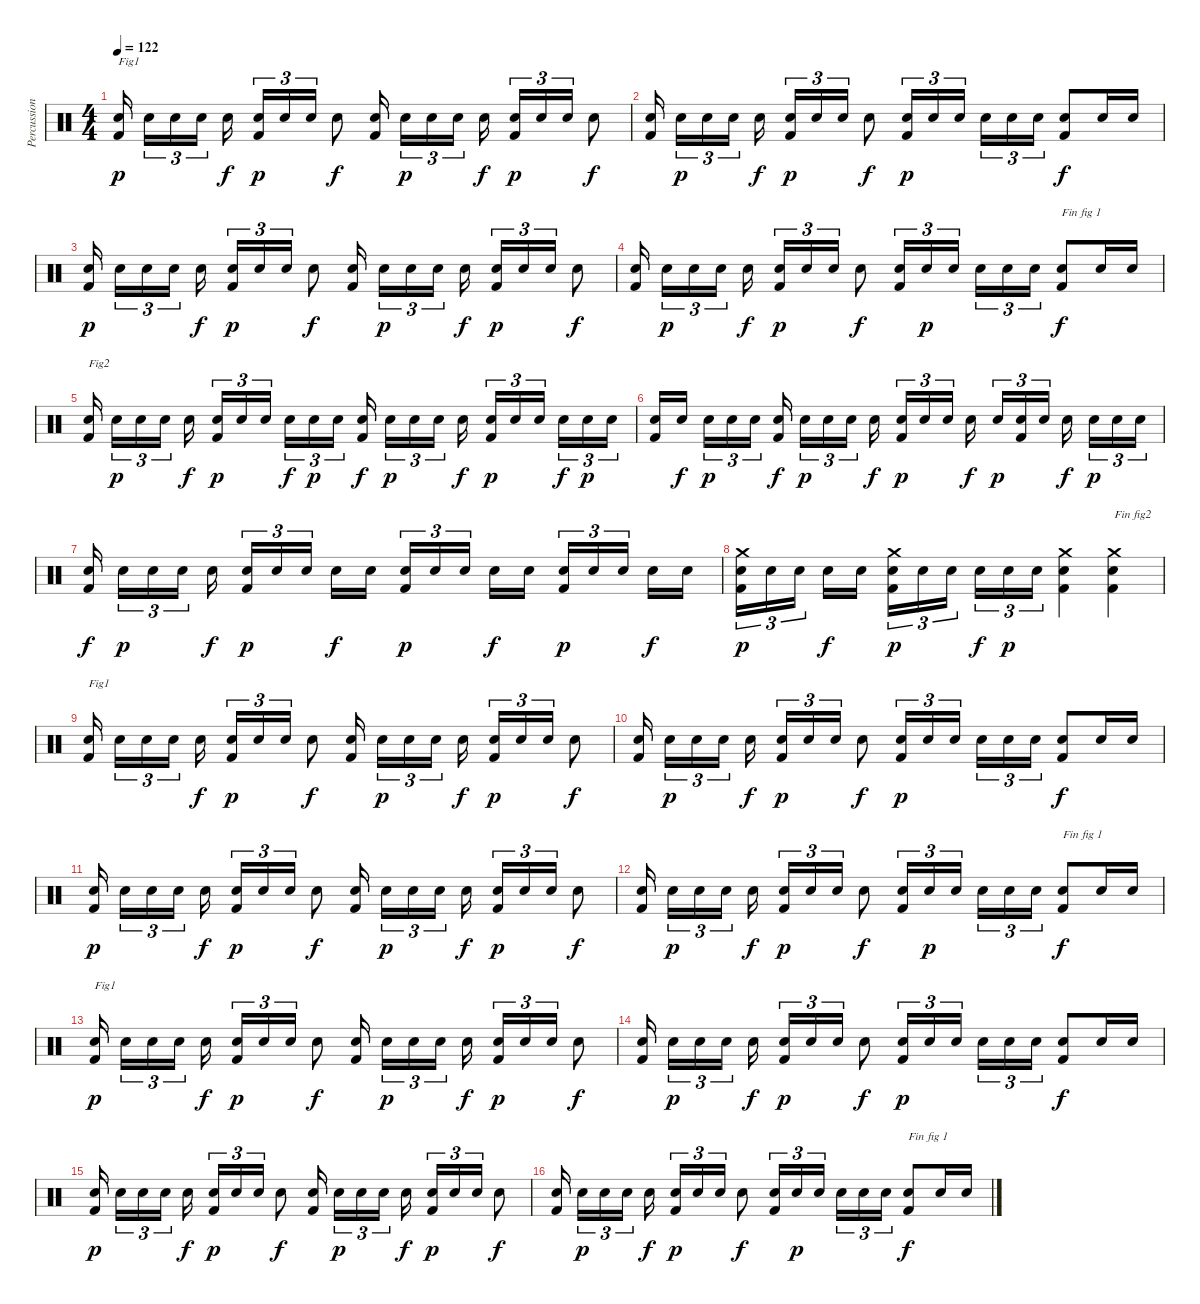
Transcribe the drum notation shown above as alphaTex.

\track ("Percussions" "Percussion") {instrument percussion}
\staff {score}
\articulation defaults
\ts (4 4)
\tempo 122
\clef neutral
\ks c
("Kick (hit) 2" "Snare (hit) 2").16{txt "Fig1" dy p} "Snare (hit) 2".16{tu (3 2)} "Snare (hit) 2".16{tu (3 2)} "Snare (hit) 2".16{tu (3 2)} "Snare (hit) 2".16{dy f} ("Kick (hit) 2" "Snare (hit) 2").16{tu (3 2) dy p} "Snare (hit) 2".16{tu (3 2)} "Snare (hit) 2".16{tu (3 2)} "Snare (hit) 2".8{dy f} ("Kick (hit) 2" "Snare (hit) 2").16 "Snare (hit) 2".16{tu (3 2) dy p} "Snare (hit) 2".16{tu (3 2)} "Snare (hit) 2".16{tu (3 2)} "Snare (hit) 2".16{dy f} ("Kick (hit) 2" "Snare (hit) 2").16{tu (3 2) dy p} "Snare (hit) 2".16{tu (3 2)} "Snare (hit) 2".16{tu (3 2)} "Snare (hit) 2".8{dy f} |
("Kick (hit) 2" "Snare (hit) 2").16 "Snare (hit) 2".16{tu (3 2) dy p} "Snare (hit) 2".16{tu (3 2)} "Snare (hit) 2".16{tu (3 2)} "Snare (hit) 2".16{dy f} ("Kick (hit) 2" "Snare (hit) 2").16{tu (3 2) dy p} "Snare (hit) 2".16{tu (3 2)} "Snare (hit) 2".16{tu (3 2)} "Snare (hit) 2".8{dy f} ("Kick (hit) 2" "Snare (hit) 2").16{tu (3 2) dy p} "Snare (hit) 2".16{tu (3 2)} "Snare (hit) 2".16{tu (3 2)} "Snare (hit) 2".16{tu (3 2)} "Snare (hit) 2".16{tu (3 2)} "Snare (hit) 2".16{tu (3 2)} ("Kick (hit) 2" "Snare (hit) 2").8{dy f} "Snare (hit) 2".16 "Snare (hit) 2".16 |
("Kick (hit) 2" "Snare (hit) 2").16{dy p} "Snare (hit) 2".16{tu (3 2)} "Snare (hit) 2".16{tu (3 2)} "Snare (hit) 2".16{tu (3 2)} "Snare (hit) 2".16{dy f} ("Kick (hit) 2" "Snare (hit) 2").16{tu (3 2) dy p} "Snare (hit) 2".16{tu (3 2)} "Snare (hit) 2".16{tu (3 2)} "Snare (hit) 2".8{dy f} ("Kick (hit) 2" "Snare (hit) 2").16 "Snare (hit) 2".16{tu (3 2) dy p} "Snare (hit) 2".16{tu (3 2)} "Snare (hit) 2".16{tu (3 2)} "Snare (hit) 2".16{dy f} ("Kick (hit) 2" "Snare (hit) 2").16{tu (3 2) dy p} "Snare (hit) 2".16{tu (3 2)} "Snare (hit) 2".16{tu (3 2)} "Snare (hit) 2".8{dy f} |
("Kick (hit) 2" "Snare (hit) 2").16 "Snare (hit) 2".16{tu (3 2) dy p} "Snare (hit) 2".16{tu (3 2)} "Snare (hit) 2".16{tu (3 2)} "Snare (hit) 2".16{dy f} ("Kick (hit) 2" "Snare (hit) 2").16{tu (3 2) dy p} "Snare (hit) 2".16{tu (3 2)} "Snare (hit) 2".16{tu (3 2)} "Snare (hit) 2".8{dy f} ("Kick (hit) 2" "Snare (hit) 2").16{tu (3 2)} "Snare (hit) 2".16{tu (3 2) dy p} "Snare (hit) 2".16{tu (3 2)} "Snare (hit) 2".16{tu (3 2)} "Snare (hit) 2".16{tu (3 2)} "Snare (hit) 2".16{tu (3 2)} ("Kick (hit) 2" "Snare (hit) 2").8{txt "Fin fig 1" dy f} "Snare (hit) 2".16 "Snare (hit) 2".16 |
("Kick (hit) 2" "Snare (hit) 2").16{txt "Fig2"} "Snare (hit) 2".16{tu (3 2) dy p} "Snare (hit) 2".16{tu (3 2)} "Snare (hit) 2".16{tu (3 2)} "Snare (hit) 2".16{dy f} ("Kick (hit) 2" "Snare (hit) 2").16{tu (3 2) dy p} "Snare (hit) 2".16{tu (3 2)} "Snare (hit) 2".16{tu (3 2)} "Snare (hit) 2".16{tu (3 2) dy f} "Snare (hit) 2".16{tu (3 2) dy p} "Snare (hit) 2".16{tu (3 2)} ("Kick (hit) 2" "Snare (hit) 2").16{dy f} "Snare (hit) 2".16{tu (3 2) dy p} "Snare (hit) 2".16{tu (3 2)} "Snare (hit) 2".16{tu (3 2)} "Snare (hit) 2".16{dy f} ("Kick (hit) 2" "Snare (hit) 2").16{tu (3 2) dy p} "Snare (hit) 2".16{tu (3 2)} "Snare (hit) 2".16{tu (3 2)} "Snare (hit) 2".16{tu (3 2) dy f} "Snare (hit) 2".16{tu (3 2) dy p} "Snare (hit) 2".16{tu (3 2)} |
("Kick (hit) 2" "Snare (hit) 2").16 "Snare (hit) 2".16{dy f} "Snare (hit) 2".16{tu (3 2) dy p} "Snare (hit) 2".16{tu (3 2)} "Snare (hit) 2".16{tu (3 2)} ("Kick (hit) 2" "Snare (hit) 2").16{dy f} "Snare (hit) 2".16{tu (3 2) dy p} "Snare (hit) 2".16{tu (3 2)} "Snare (hit) 2".16{tu (3 2)} "Snare (hit) 2".16{dy f} ("Kick (hit) 2" "Snare (hit) 2").16{tu (3 2) dy p} "Snare (hit) 2".16{tu (3 2)} "Snare (hit) 2".16{tu (3 2)} "Snare (hit) 2".16{dy f} "Snare (hit) 2".16{tu (3 2) dy p} ("Kick (hit) 2" "Snare (hit) 2").16{tu (3 2)} "Snare (hit) 2".16{tu (3 2)} "Snare (hit) 2".16{dy f} "Snare (hit) 2".16{tu (3 2) dy p} "Snare (hit) 2".16{tu (3 2)} "Snare (hit) 2".16{tu (3 2)} |
("Kick (hit) 2" "Snare (hit) 2").16{dy f} "Snare (hit) 2".16{tu (3 2) dy p} "Snare (hit) 2".16{tu (3 2)} "Snare (hit) 2".16{tu (3 2)} "Snare (hit) 2".16{dy f} ("Kick (hit) 2" "Snare (hit) 2").16{tu (3 2) dy p} "Snare (hit) 2".16{tu (3 2)} "Snare (hit) 2".16{tu (3 2)} "Snare (hit) 2".16{dy f} "Snare (hit) 2".16 ("Kick (hit) 2" "Snare (hit) 2").16{tu (3 2) dy p} "Snare (hit) 2".16{tu (3 2)} "Snare (hit) 2".16{tu (3 2)} "Snare (hit) 2".16{dy f} "Snare (hit) 2".16 ("Kick (hit) 2" "Snare (hit) 2").16{tu (3 2) dy p} "Snare (hit) 2".16{tu (3 2)} "Snare (hit) 2".16{tu (3 2)} "Snare (hit) 2".16{dy f} "Snare (hit) 2".16 |
("Kick (hit) 2" "Snare (hit) 2" "Crash medium (hit)").16{tu (3 2) dy p} "Snare (hit) 2".16{tu (3 2)} "Snare (hit) 2".16{tu (3 2)} "Snare (hit) 2".16{dy f} "Snare (hit) 2".16 ("Kick (hit) 2" "Snare (hit) 2" "Crash medium (hit)").16{tu (3 2) dy p} "Snare (hit) 2".16{tu (3 2)} "Snare (hit) 2".16{tu (3 2)} "Snare (hit) 2".16{tu (3 2) dy f} "Snare (hit) 2".16{tu (3 2) dy p} "Snare (hit) 2".16{tu (3 2)} ("Kick (hit) 2" "Snare (hit) 2" "Crash medium (hit)").4 ("Kick (hit) 2" "Snare (hit) 2" "Crash medium (hit)").4{txt "Fin fig2"} |
("Kick (hit) 2" "Snare (hit) 2").16{txt "Fig1"} "Snare (hit) 2".16{tu (3 2)} "Snare (hit) 2".16{tu (3 2)} "Snare (hit) 2".16{tu (3 2)} "Snare (hit) 2".16{dy f} ("Kick (hit) 2" "Snare (hit) 2").16{tu (3 2) dy p} "Snare (hit) 2".16{tu (3 2)} "Snare (hit) 2".16{tu (3 2)} "Snare (hit) 2".8{dy f} ("Kick (hit) 2" "Snare (hit) 2").16 "Snare (hit) 2".16{tu (3 2) dy p} "Snare (hit) 2".16{tu (3 2)} "Snare (hit) 2".16{tu (3 2)} "Snare (hit) 2".16{dy f} ("Kick (hit) 2" "Snare (hit) 2").16{tu (3 2) dy p} "Snare (hit) 2".16{tu (3 2)} "Snare (hit) 2".16{tu (3 2)} "Snare (hit) 2".8{dy f} |
("Kick (hit) 2" "Snare (hit) 2").16 "Snare (hit) 2".16{tu (3 2) dy p} "Snare (hit) 2".16{tu (3 2)} "Snare (hit) 2".16{tu (3 2)} "Snare (hit) 2".16{dy f} ("Kick (hit) 2" "Snare (hit) 2").16{tu (3 2) dy p} "Snare (hit) 2".16{tu (3 2)} "Snare (hit) 2".16{tu (3 2)} "Snare (hit) 2".8{dy f} ("Kick (hit) 2" "Snare (hit) 2").16{tu (3 2) dy p} "Snare (hit) 2".16{tu (3 2)} "Snare (hit) 2".16{tu (3 2)} "Snare (hit) 2".16{tu (3 2)} "Snare (hit) 2".16{tu (3 2)} "Snare (hit) 2".16{tu (3 2)} ("Kick (hit) 2" "Snare (hit) 2").8{dy f} "Snare (hit) 2".16 "Snare (hit) 2".16 |
("Kick (hit) 2" "Snare (hit) 2").16{dy p} "Snare (hit) 2".16{tu (3 2)} "Snare (hit) 2".16{tu (3 2)} "Snare (hit) 2".16{tu (3 2)} "Snare (hit) 2".16{dy f} ("Kick (hit) 2" "Snare (hit) 2").16{tu (3 2) dy p} "Snare (hit) 2".16{tu (3 2)} "Snare (hit) 2".16{tu (3 2)} "Snare (hit) 2".8{dy f} ("Kick (hit) 2" "Snare (hit) 2").16 "Snare (hit) 2".16{tu (3 2) dy p} "Snare (hit) 2".16{tu (3 2)} "Snare (hit) 2".16{tu (3 2)} "Snare (hit) 2".16{dy f} ("Kick (hit) 2" "Snare (hit) 2").16{tu (3 2) dy p} "Snare (hit) 2".16{tu (3 2)} "Snare (hit) 2".16{tu (3 2)} "Snare (hit) 2".8{dy f} |
("Kick (hit) 2" "Snare (hit) 2").16 "Snare (hit) 2".16{tu (3 2) dy p} "Snare (hit) 2".16{tu (3 2)} "Snare (hit) 2".16{tu (3 2)} "Snare (hit) 2".16{dy f} ("Kick (hit) 2" "Snare (hit) 2").16{tu (3 2) dy p} "Snare (hit) 2".16{tu (3 2)} "Snare (hit) 2".16{tu (3 2)} "Snare (hit) 2".8{dy f} ("Kick (hit) 2" "Snare (hit) 2").16{tu (3 2)} "Snare (hit) 2".16{tu (3 2) dy p} "Snare (hit) 2".16{tu (3 2)} "Snare (hit) 2".16{tu (3 2)} "Snare (hit) 2".16{tu (3 2)} "Snare (hit) 2".16{tu (3 2)} ("Kick (hit) 2" "Snare (hit) 2").8{txt "Fin fig 1" dy f} "Snare (hit) 2".16 "Snare (hit) 2".16 |
("Kick (hit) 2" "Snare (hit) 2").16{txt "Fig1" dy p} "Snare (hit) 2".16{tu (3 2)} "Snare (hit) 2".16{tu (3 2)} "Snare (hit) 2".16{tu (3 2)} "Snare (hit) 2".16{dy f} ("Kick (hit) 2" "Snare (hit) 2").16{tu (3 2) dy p} "Snare (hit) 2".16{tu (3 2)} "Snare (hit) 2".16{tu (3 2)} "Snare (hit) 2".8{dy f} ("Kick (hit) 2" "Snare (hit) 2").16 "Snare (hit) 2".16{tu (3 2) dy p} "Snare (hit) 2".16{tu (3 2)} "Snare (hit) 2".16{tu (3 2)} "Snare (hit) 2".16{dy f} ("Kick (hit) 2" "Snare (hit) 2").16{tu (3 2) dy p} "Snare (hit) 2".16{tu (3 2)} "Snare (hit) 2".16{tu (3 2)} "Snare (hit) 2".8{dy f} |
("Kick (hit) 2" "Snare (hit) 2").16 "Snare (hit) 2".16{tu (3 2) dy p} "Snare (hit) 2".16{tu (3 2)} "Snare (hit) 2".16{tu (3 2)} "Snare (hit) 2".16{dy f} ("Kick (hit) 2" "Snare (hit) 2").16{tu (3 2) dy p} "Snare (hit) 2".16{tu (3 2)} "Snare (hit) 2".16{tu (3 2)} "Snare (hit) 2".8{dy f} ("Kick (hit) 2" "Snare (hit) 2").16{tu (3 2) dy p} "Snare (hit) 2".16{tu (3 2)} "Snare (hit) 2".16{tu (3 2)} "Snare (hit) 2".16{tu (3 2)} "Snare (hit) 2".16{tu (3 2)} "Snare (hit) 2".16{tu (3 2)} ("Kick (hit) 2" "Snare (hit) 2").8{dy f} "Snare (hit) 2".16 "Snare (hit) 2".16 |
("Kick (hit) 2" "Snare (hit) 2").16{dy p} "Snare (hit) 2".16{tu (3 2)} "Snare (hit) 2".16{tu (3 2)} "Snare (hit) 2".16{tu (3 2)} "Snare (hit) 2".16{dy f} ("Kick (hit) 2" "Snare (hit) 2").16{tu (3 2) dy p} "Snare (hit) 2".16{tu (3 2)} "Snare (hit) 2".16{tu (3 2)} "Snare (hit) 2".8{dy f} ("Kick (hit) 2" "Snare (hit) 2").16 "Snare (hit) 2".16{tu (3 2) dy p} "Snare (hit) 2".16{tu (3 2)} "Snare (hit) 2".16{tu (3 2)} "Snare (hit) 2".16{dy f} ("Kick (hit) 2" "Snare (hit) 2").16{tu (3 2) dy p} "Snare (hit) 2".16{tu (3 2)} "Snare (hit) 2".16{tu (3 2)} "Snare (hit) 2".8{dy f} |
("Kick (hit) 2" "Snare (hit) 2").16 "Snare (hit) 2".16{tu (3 2) dy p} "Snare (hit) 2".16{tu (3 2)} "Snare (hit) 2".16{tu (3 2)} "Snare (hit) 2".16{dy f} ("Kick (hit) 2" "Snare (hit) 2").16{tu (3 2) dy p} "Snare (hit) 2".16{tu (3 2)} "Snare (hit) 2".16{tu (3 2)} "Snare (hit) 2".8{dy f} ("Kick (hit) 2" "Snare (hit) 2").16{tu (3 2)} "Snare (hit) 2".16{tu (3 2) dy p} "Snare (hit) 2".16{tu (3 2)} "Snare (hit) 2".16{tu (3 2)} "Snare (hit) 2".16{tu (3 2)} "Snare (hit) 2".16{tu (3 2)} ("Kick (hit) 2" "Snare (hit) 2").8{txt "Fin fig 1" dy f} "Snare (hit) 2".16 "Snare (hit) 2".16
